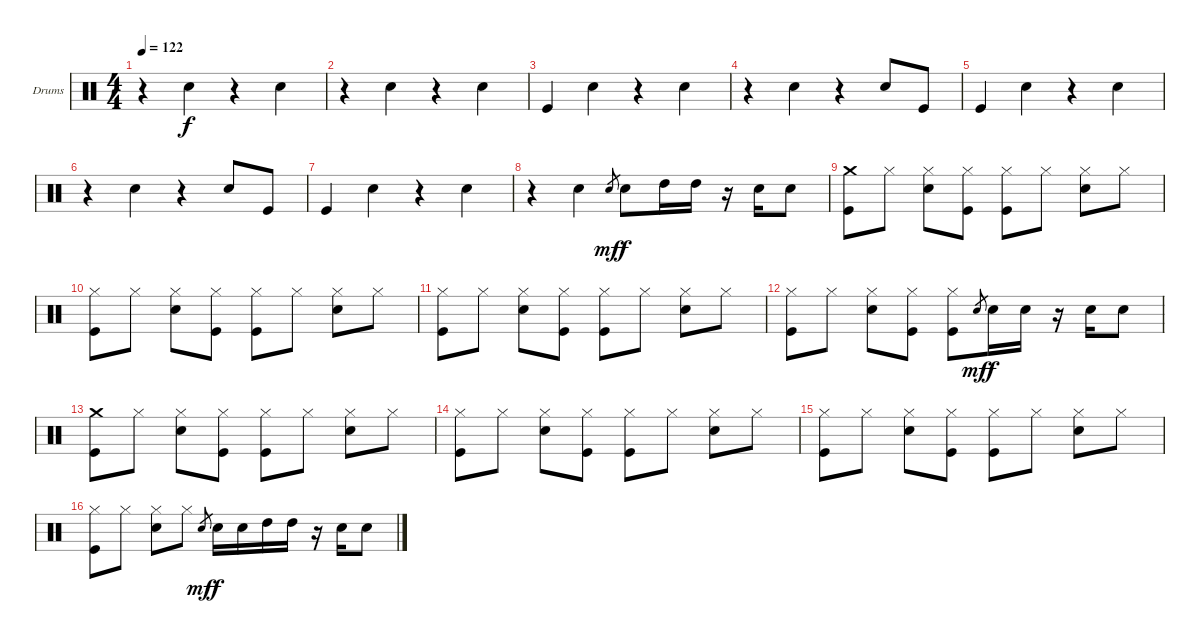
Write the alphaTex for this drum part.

\bracketExtendMode groupsimilarinstruments
\firstSystemTrackNameOrientation horizontal
\otherSystemsTrackNameOrientation horizontal
\track ("Drumkit" "Drums") {instrument percussion}
\staff {score}
\articulation defaults
\ts (4 4)
\tempo 122
\clef neutral
\ks c
r.4{dy f} "Snare (hit) 2".4 r.4 "Snare (hit) 2".4 |
r.4 "Snare (hit) 2".4 r.4 "Snare (hit) 2".4 |
"Kick (hit)".4 "Snare (hit) 2".4 r.4 "Snare (hit) 2".4 |
r.4 "Snare (hit) 2".4 r.4 "Snare (hit) 2".8 "Kick (hit)".8 |
"Kick (hit)".4 "Snare (hit) 2".4 r.4 "Snare (hit) 2".4 |
r.4 "Snare (hit) 2".4 r.4 "Snare (hit) 2".8 "Kick (hit)".8 |
"Kick (hit)".4 "Snare (hit) 2".4 r.4 "Snare (hit) 2".4 |
r.4 "Snare (hit) 2".4 "Snare (hit) 2".8{gr dy mf} "Snare (hit) 2".8{dy f} "High Tom (hit)".16 "High Tom (hit)".16 r.16 "Snare (hit) 2".16 "Snare (hit) 2".8 |
("Crash medium (hit)" "Kick (hit)").8 "Hi-Hat (closed)".8 ("Hi-Hat (closed)" "Snare (hit) 2").8 ("Hi-Hat (closed)" "Kick (hit)").8 ("Hi-Hat (closed)" "Kick (hit)").8 "Hi-Hat (closed)".8 ("Hi-Hat (closed)" "Snare (hit) 2").8 "Hi-Hat (closed)".8 |
("Hi-Hat (closed)" "Kick (hit)").8 "Hi-Hat (closed)".8 ("Hi-Hat (closed)" "Snare (hit) 2").8 ("Hi-Hat (closed)" "Kick (hit)").8 ("Hi-Hat (closed)" "Kick (hit)").8 "Hi-Hat (closed)".8 ("Hi-Hat (closed)" "Snare (hit) 2").8 "Hi-Hat (closed)".8 |
("Hi-Hat (closed)" "Kick (hit)").8 "Hi-Hat (closed)".8 ("Hi-Hat (closed)" "Snare (hit) 2").8 ("Hi-Hat (closed)" "Kick (hit)").8 ("Hi-Hat (closed)" "Kick (hit)").8 "Hi-Hat (closed)".8 ("Hi-Hat (closed)" "Snare (hit) 2").8 "Hi-Hat (closed)".8 |
("Hi-Hat (closed)" "Kick (hit)").8 "Hi-Hat (closed)".8 ("Hi-Hat (closed)" "Snare (hit) 2").8 ("Hi-Hat (closed)" "Kick (hit)").8 ("Hi-Hat (closed)" "Kick (hit)").8 "Snare (hit) 2".8{gr dy mf} "Snare (hit) 2".16{dy f} "Snare (hit) 2".16 r.16 "Snare (hit) 2".16 "Snare (hit) 2".8 |
("Crash medium (hit)" "Kick (hit)").8 "Hi-Hat (closed)".8 ("Hi-Hat (closed)" "Snare (hit) 2").8 ("Hi-Hat (closed)" "Kick (hit)").8 ("Hi-Hat (closed)" "Kick (hit)").8 "Hi-Hat (closed)".8 ("Hi-Hat (closed)" "Snare (hit) 2").8 "Hi-Hat (closed)".8 |
("Hi-Hat (closed)" "Kick (hit)").8 "Hi-Hat (closed)".8 ("Hi-Hat (closed)" "Snare (hit) 2").8 ("Hi-Hat (closed)" "Kick (hit)").8 ("Hi-Hat (closed)" "Kick (hit)").8 "Hi-Hat (closed)".8 ("Hi-Hat (closed)" "Snare (hit) 2").8 "Hi-Hat (closed)".8 |
("Hi-Hat (closed)" "Kick (hit)").8 "Hi-Hat (closed)".8 ("Hi-Hat (closed)" "Snare (hit) 2").8 ("Hi-Hat (closed)" "Kick (hit)").8 ("Hi-Hat (closed)" "Kick (hit)").8 "Hi-Hat (closed)".8 ("Hi-Hat (closed)" "Snare (hit) 2").8 "Hi-Hat (closed)".8 |
("Hi-Hat (closed)" "Kick (hit)").8 "Hi-Hat (closed)".8 ("Hi-Hat (closed)" "Snare (hit) 2").8 "Hi-Hat (closed)".8 "Snare (hit) 2".8{gr dy mf} "Snare (hit) 2".16{dy f} "Snare (hit) 2".16 "High Tom (hit)".16 "High Tom (hit)".16 r.16 "Snare (hit) 2".16 "Snare (hit) 2".8
